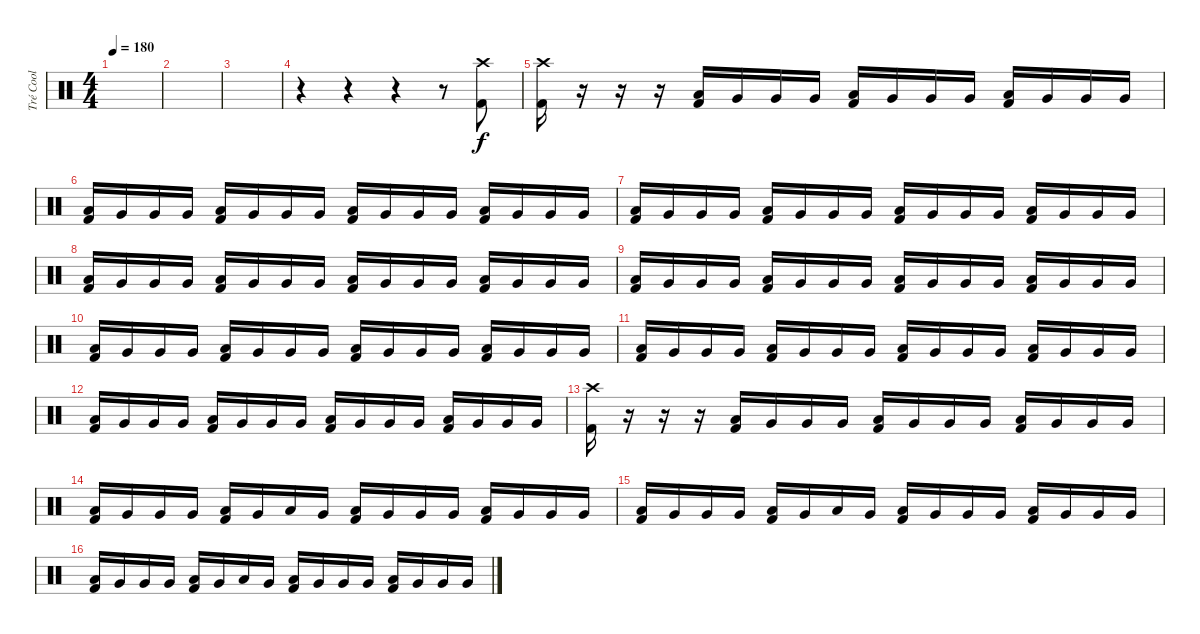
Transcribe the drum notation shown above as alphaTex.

\track ("Tré Cool" "Tré Cool") {instrument percussion}
\staff {score}
\articulation defaults
\ts (4 4)
\tempo 180
\clef neutral
\ks c
|
|
|
r.4 r.4 r.4 r.8 ("Crash high (hit)" "Kick (hit) 2").8 |
("Crash high (hit)" "Kick (hit) 2").16 r.16 r.16 r.16 ("Low Tom (hit)" "Kick (hit) 2").16 "Very Low Tom (hit)".16 "Very Low Tom (hit)".16 "Very Low Tom (hit)".16 ("Low Tom (hit)" "Kick (hit) 2").16 "Very Low Tom (hit)".16 "Very Low Tom (hit)".16 "Very Low Tom (hit)".16 ("Low Tom (hit)" "Kick (hit) 2").16 "Very Low Tom (hit)".16 "Very Low Tom (hit)".16 "Very Low Tom (hit)".16 |
("Low Tom (hit)" "Kick (hit) 2").16 "Very Low Tom (hit)".16 "Very Low Tom (hit)".16 "Very Low Tom (hit)".16 ("Low Tom (hit)" "Kick (hit) 2").16 "Very Low Tom (hit)".16 "Very Low Tom (hit)".16 "Very Low Tom (hit)".16 ("Low Tom (hit)" "Kick (hit) 2").16 "Very Low Tom (hit)".16 "Very Low Tom (hit)".16 "Very Low Tom (hit)".16 ("Low Tom (hit)" "Kick (hit) 2").16 "Very Low Tom (hit)".16 "Very Low Tom (hit)".16 "Very Low Tom (hit)".16 |
("Low Tom (hit)" "Kick (hit) 2").16 "Very Low Tom (hit)".16 "Very Low Tom (hit)".16 "Very Low Tom (hit)".16 ("Low Tom (hit)" "Kick (hit) 2").16 "Very Low Tom (hit)".16 "Very Low Tom (hit)".16 "Very Low Tom (hit)".16 ("Low Tom (hit)" "Kick (hit) 2").16 "Very Low Tom (hit)".16 "Very Low Tom (hit)".16 "Very Low Tom (hit)".16 ("Low Tom (hit)" "Kick (hit) 2").16 "Very Low Tom (hit)".16 "Very Low Tom (hit)".16 "Very Low Tom (hit)".16 |
("Low Tom (hit)" "Kick (hit) 2").16 "Very Low Tom (hit)".16 "Very Low Tom (hit)".16 "Very Low Tom (hit)".16 ("Low Tom (hit)" "Kick (hit) 2").16 "Very Low Tom (hit)".16 "Very Low Tom (hit)".16 "Very Low Tom (hit)".16 ("Low Tom (hit)" "Kick (hit) 2").16 "Very Low Tom (hit)".16 "Very Low Tom (hit)".16 "Very Low Tom (hit)".16 ("Low Tom (hit)" "Kick (hit) 2").16 "Very Low Tom (hit)".16 "Very Low Tom (hit)".16 "Very Low Tom (hit)".16 |
("Low Tom (hit)" "Kick (hit) 2").16 "Very Low Tom (hit)".16 "Very Low Tom (hit)".16 "Very Low Tom (hit)".16 ("Low Tom (hit)" "Kick (hit) 2").16 "Very Low Tom (hit)".16 "Very Low Tom (hit)".16 "Very Low Tom (hit)".16 ("Low Tom (hit)" "Kick (hit) 2").16 "Very Low Tom (hit)".16 "Very Low Tom (hit)".16 "Very Low Tom (hit)".16 ("Low Tom (hit)" "Kick (hit) 2").16 "Very Low Tom (hit)".16 "Very Low Tom (hit)".16 "Very Low Tom (hit)".16 |
("Low Tom (hit)" "Kick (hit) 2").16 "Very Low Tom (hit)".16 "Very Low Tom (hit)".16 "Very Low Tom (hit)".16 ("Low Tom (hit)" "Kick (hit) 2").16 "Very Low Tom (hit)".16 "Very Low Tom (hit)".16 "Very Low Tom (hit)".16 ("Low Tom (hit)" "Kick (hit) 2").16 "Very Low Tom (hit)".16 "Very Low Tom (hit)".16 "Very Low Tom (hit)".16 ("Low Tom (hit)" "Kick (hit) 2").16 "Very Low Tom (hit)".16 "Very Low Tom (hit)".16 "Very Low Tom (hit)".16 |
("Low Tom (hit)" "Kick (hit) 2").16 "Very Low Tom (hit)".16 "Very Low Tom (hit)".16 "Very Low Tom (hit)".16 ("Low Tom (hit)" "Kick (hit) 2").16 "Very Low Tom (hit)".16 "Very Low Tom (hit)".16 "Very Low Tom (hit)".16 ("Low Tom (hit)" "Kick (hit) 2").16 "Very Low Tom (hit)".16 "Very Low Tom (hit)".16 "Very Low Tom (hit)".16 ("Low Tom (hit)" "Kick (hit) 2").16 "Very Low Tom (hit)".16 "Very Low Tom (hit)".16 "Very Low Tom (hit)".16 |
("Low Tom (hit)" "Kick (hit) 2").16 "Very Low Tom (hit)".16 "Very Low Tom (hit)".16 "Very Low Tom (hit)".16 ("Low Tom (hit)" "Kick (hit) 2").16 "Very Low Tom (hit)".16 "Very Low Tom (hit)".16 "Very Low Tom (hit)".16 ("Low Tom (hit)" "Kick (hit) 2").16 "Very Low Tom (hit)".16 "Very Low Tom (hit)".16 "Very Low Tom (hit)".16 ("Low Tom (hit)" "Kick (hit) 2").16 "Very Low Tom (hit)".16 "Very Low Tom (hit)".16 "Very Low Tom (hit)".16 |
("Crash high (hit)" "Kick (hit) 2").16 r.16 r.16 r.16 ("Low Tom (hit)" "Kick (hit) 2").16 "Very Low Tom (hit)".16 "Very Low Tom (hit)".16 "Very Low Tom (hit)".16 ("Low Tom (hit)" "Kick (hit) 2").16 "Very Low Tom (hit)".16 "Very Low Tom (hit)".16 "Very Low Tom (hit)".16 ("Low Tom (hit)" "Kick (hit) 2").16 "Very Low Tom (hit)".16 "Very Low Tom (hit)".16 "Very Low Tom (hit)".16 |
("Low Tom (hit)" "Kick (hit) 2").16 "Very Low Tom (hit)".16 "Very Low Tom (hit)".16 "Very Low Tom (hit)".16 ("Low Tom (hit)" "Kick (hit) 2").16 "Very Low Tom (hit)".16 "Low Tom (hit)".16 "Very Low Tom (hit)".16 ("Low Tom (hit)" "Kick (hit) 2").16 "Very Low Tom (hit)".16 "Very Low Tom (hit)".16 "Very Low Tom (hit)".16 ("Low Tom (hit)" "Kick (hit) 2").16 "Very Low Tom (hit)".16 "Very Low Tom (hit)".16 "Very Low Tom (hit)".16 |
("Low Tom (hit)" "Kick (hit) 2").16 "Very Low Tom (hit)".16 "Very Low Tom (hit)".16 "Very Low Tom (hit)".16 ("Low Tom (hit)" "Kick (hit) 2").16 "Very Low Tom (hit)".16 "Low Tom (hit)".16 "Very Low Tom (hit)".16 ("Low Tom (hit)" "Kick (hit) 2").16 "Very Low Tom (hit)".16 "Very Low Tom (hit)".16 "Very Low Tom (hit)".16 ("Low Tom (hit)" "Kick (hit) 2").16 "Very Low Tom (hit)".16 "Very Low Tom (hit)".16 "Very Low Tom (hit)".16 |
("Low Tom (hit)" "Kick (hit) 2").16 "Very Low Tom (hit)".16 "Very Low Tom (hit)".16 "Very Low Tom (hit)".16 ("Low Tom (hit)" "Kick (hit) 2").16 "Very Low Tom (hit)".16 "Low Tom (hit)".16 "Very Low Tom (hit)".16 ("Low Tom (hit)" "Kick (hit) 2").16 "Very Low Tom (hit)".16 "Very Low Tom (hit)".16 "Very Low Tom (hit)".16 ("Low Tom (hit)" "Kick (hit) 2").16 "Very Low Tom (hit)".16 "Very Low Tom (hit)".16 "Very Low Tom (hit)".16
